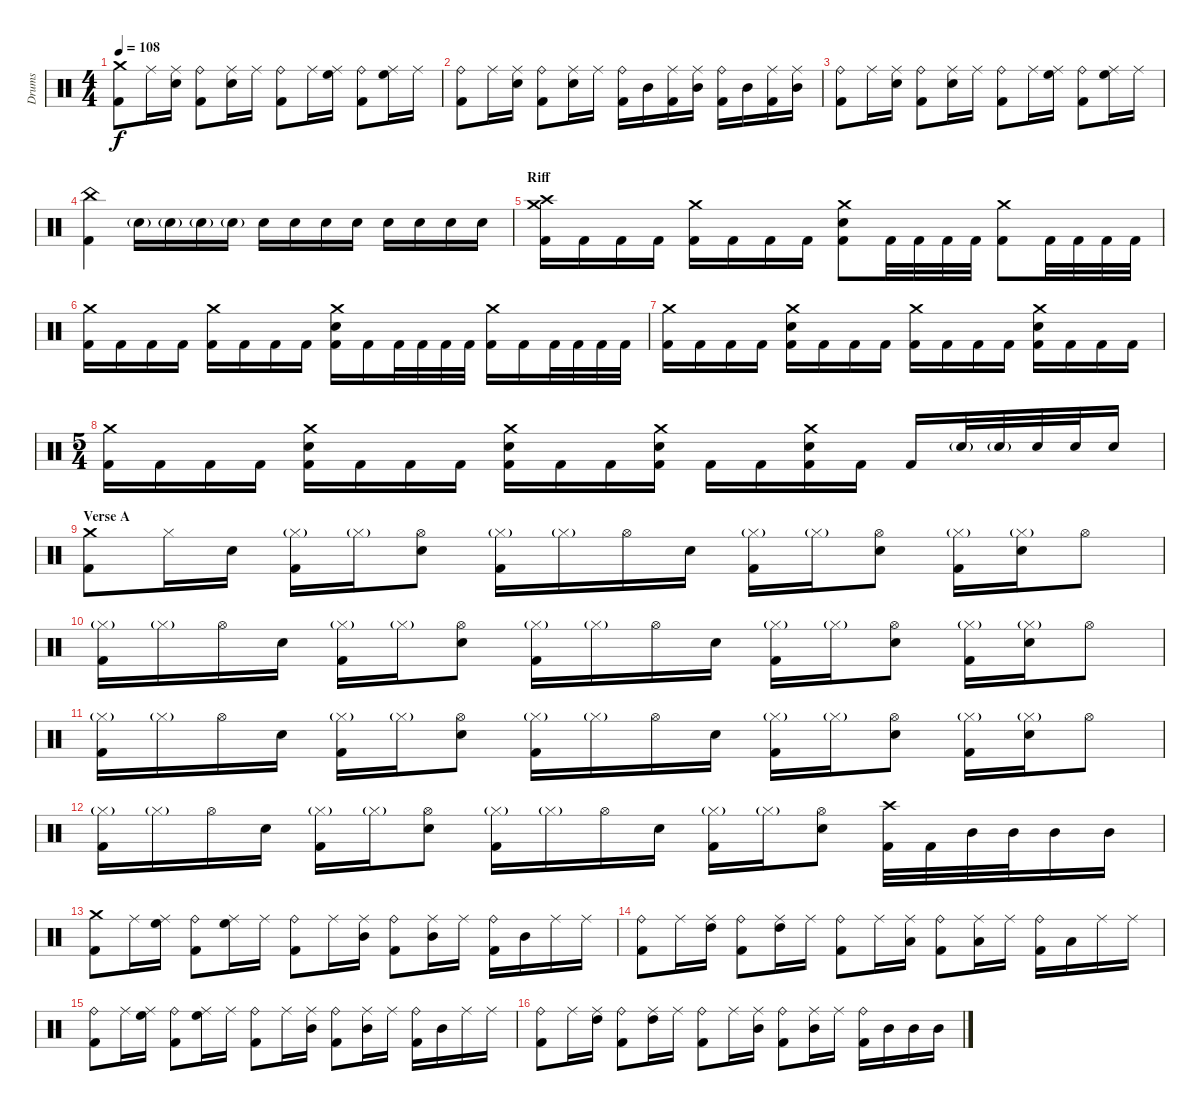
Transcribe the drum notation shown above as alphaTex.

\track ("Drums" "Drums") {instrument percussion}
\staff {score}
\articulation defaults
\ts (4 4)
\tempo 108
\clef neutral
\ks c
("Crash medium (hit)" "Kick (hit) 2").8{dy f} "Ride (middle)".16 ("Ride (middle)" "Snare (hit) 2").16 ("Ride (bell)" "Kick (hit) 2").8 ("Ride (middle)" "Snare (hit) 2").16 "Ride (middle)".16 ("Ride (bell)" "Kick (hit) 2").8 "Ride (middle)".16 ("Ride (middle)" "High Floor Tom (hit)").16 ("Ride (bell)" "Kick (hit) 2").8 ("Ride (middle)" "High Floor Tom (hit)").16 "Ride (middle)".16 |
("Ride (bell)" "Kick (hit) 2").8 "Ride (middle)".16 ("Ride (middle)" "Snare (hit) 2").16 ("Ride (bell)" "Kick (hit) 2").8 ("Ride (middle)" "Snare (hit) 2").16 "Ride (middle)".16 ("Ride (bell)" "Kick (hit) 2").16 "Mid Tom (hit)".16 ("Ride (middle)" "Kick (hit) 2").16 ("Ride (middle)" "Mid Tom (hit)").16 ("Ride (bell)" "Kick (hit) 2").16 "Mid Tom (hit)".16 ("Ride (middle)" "Kick (hit) 2").16 ("Ride (middle)" "Mid Tom (hit)").16 |
("Ride (bell)" "Kick (hit) 2").8 "Ride (middle)".16 ("Ride (middle)" "Snare (hit) 2").16 ("Ride (bell)" "Kick (hit) 2").8 ("Ride (middle)" "Snare (hit) 2").16 "Ride (middle)".16 ("Ride (bell)" "Kick (hit) 2").8 "Ride (middle)".16 ("Ride (middle)" "High Floor Tom (hit)").16 ("Ride (bell)" "Kick (hit) 2").8 ("Ride (middle)" "High Floor Tom (hit)").16 "Ride (middle)".16 |
("China (hit)" "Kick (hit) 2").4 "Snare (hit) 2"{g}.16 "Snare (hit) 2"{g}.16 "Snare (hit) 2"{g}.16 "Snare (hit) 2"{g}.16 "Snare (hit) 2".16 "Snare (hit) 2".16 "Snare (hit) 2".16 "Snare (hit) 2".16 "Snare (hit) 2".16 "Snare (hit) 2".16 "Snare (hit) 2".16 "Snare (hit) 2".16 |
\section ("" "Riff")
("Crash medium (hit)" "Crash high (hit)" "Kick (hit) 2").16 "Kick (hit) 2".16 "Kick (hit) 2".16 "Kick (hit) 2".16 ("Crash medium (hit)" "Kick (hit) 2").16 "Kick (hit) 2".16 "Kick (hit) 2".16 "Kick (hit) 2".16 ("Crash medium (hit)" "Snare (hit) 2" "Kick (hit) 2").8 "Kick (hit) 2".32 "Kick (hit) 2".32 "Kick (hit) 2".32 "Kick (hit) 2".32 ("Crash medium (hit)" "Kick (hit) 2").8 "Kick (hit) 2".32 "Kick (hit) 2".32 "Kick (hit) 2".32 "Kick (hit) 2".32 |
("Crash medium (hit)" "Kick (hit) 2").16 "Kick (hit) 2".16 "Kick (hit) 2".16 "Kick (hit) 2".16 ("Crash medium (hit)" "Kick (hit) 2").16 "Kick (hit) 2".16 "Kick (hit) 2".16 "Kick (hit) 2".16 ("Crash medium (hit)" "Snare (hit) 2" "Kick (hit) 2").16 "Kick (hit) 2".16 "Kick (hit) 2".32 "Kick (hit) 2".32 "Kick (hit) 2".32 "Kick (hit) 2".32 ("Crash medium (hit)" "Kick (hit) 2").16 "Kick (hit) 2".16 "Kick (hit) 2".32 "Kick (hit) 2".32 "Kick (hit) 2".32 "Kick (hit) 2".32 |
("Crash medium (hit)" "Kick (hit) 2").16 "Kick (hit) 2".16 "Kick (hit) 2".16 "Kick (hit) 2".16 ("Crash medium (hit)" "Snare (hit) 2" "Kick (hit) 2").16 "Kick (hit) 2".16 "Kick (hit) 2".16 "Kick (hit) 2".16 ("Crash medium (hit)" "Kick (hit) 2").16 "Kick (hit) 2".16 "Kick (hit) 2".16 "Kick (hit) 2".16 ("Crash medium (hit)" "Snare (hit) 2" "Kick (hit) 2").16 "Kick (hit) 2".16 "Kick (hit) 2".16 "Kick (hit) 2".16 |
\ts (5 4)
("Crash medium (hit)" "Kick (hit) 2").16 "Kick (hit) 2".16 "Kick (hit) 2".16 "Kick (hit) 2".16 ("Crash medium (hit)" "Snare (hit) 2" "Kick (hit) 2").16 "Kick (hit) 2".16 "Kick (hit) 2".16 "Kick (hit) 2".16 ("Crash medium (hit)" "Snare (hit) 2" "Kick (hit) 2").16 "Kick (hit) 2".16 "Kick (hit) 2".16 ("Crash medium (hit)" "Snare (hit) 2" "Kick (hit) 2").16 "Kick (hit) 2".16 "Kick (hit) 2".16 ("Crash medium (hit)" "Snare (hit) 2" "Kick (hit) 2").16 "Kick (hit) 2".16 "Kick (hit) 2".16 "Snare (hit) 2"{g}.32 "Snare (hit) 2"{g}.32 "Snare (hit) 2".32 "Snare (hit) 2".32 "Snare (hit) 2".16 |
\section ("" "Verse A")
("Crash medium (hit)" "Kick (hit) 2").8 "Hi-Hat (closed)".16 "Snare (hit) 2".16 ("Hi-Hat (closed)"{g} "Kick (hit) 2").16 "Hi-Hat (closed)"{g}.16 ("Hi-Hat (open)" "Snare (hit) 2").8 ("Hi-Hat (closed)"{g} "Kick (hit) 2").16 "Hi-Hat (closed)"{g}.16 "Hi-Hat (open)".16 "Snare (hit) 2".16 ("Hi-Hat (closed)"{g} "Kick (hit) 2").16 "Hi-Hat (closed)"{g}.16 ("Hi-Hat (open)" "Snare (hit) 2").8 ("Hi-Hat (closed)"{g} "Kick (hit) 2").16 ("Hi-Hat (closed)"{g} "Snare (hit) 2").16 "Hi-Hat (open)".8 |
("Hi-Hat (closed)"{g} "Kick (hit) 2").16 "Hi-Hat (closed)"{g}.16 "Hi-Hat (open)".16 "Snare (hit) 2".16 ("Hi-Hat (closed)"{g} "Kick (hit) 2").16 "Hi-Hat (closed)"{g}.16 ("Hi-Hat (open)" "Snare (hit) 2").8 ("Hi-Hat (closed)"{g} "Kick (hit) 2").16 "Hi-Hat (closed)"{g}.16 "Hi-Hat (open)".16 "Snare (hit) 2".16 ("Hi-Hat (closed)"{g} "Kick (hit) 2").16 "Hi-Hat (closed)"{g}.16 ("Hi-Hat (open)" "Snare (hit) 2").8 ("Hi-Hat (closed)"{g} "Kick (hit) 2").16 ("Hi-Hat (closed)"{g} "Snare (hit) 2").16 "Hi-Hat (open)".8 |
("Hi-Hat (closed)"{g} "Kick (hit) 2").16 "Hi-Hat (closed)"{g}.16 "Hi-Hat (open)".16 "Snare (hit) 2".16 ("Hi-Hat (closed)"{g} "Kick (hit) 2").16 "Hi-Hat (closed)"{g}.16 ("Hi-Hat (open)" "Snare (hit) 2").8 ("Hi-Hat (closed)"{g} "Kick (hit) 2").16 "Hi-Hat (closed)"{g}.16 "Hi-Hat (open)".16 "Snare (hit) 2".16 ("Hi-Hat (closed)"{g} "Kick (hit) 2").16 "Hi-Hat (closed)"{g}.16 ("Hi-Hat (open)" "Snare (hit) 2").8 ("Hi-Hat (closed)"{g} "Kick (hit) 2").16 ("Hi-Hat (closed)"{g} "Snare (hit) 2").16 "Hi-Hat (open)".8 |
("Hi-Hat (closed)"{g} "Kick (hit) 2").16 "Hi-Hat (closed)"{g}.16 "Hi-Hat (open)".16 "Snare (hit) 2".16 ("Hi-Hat (closed)"{g} "Kick (hit) 2").16 "Hi-Hat (closed)"{g}.16 ("Hi-Hat (open)" "Snare (hit) 2").8 ("Hi-Hat (closed)"{g} "Kick (hit) 2").16 "Hi-Hat (closed)"{g}.16 "Hi-Hat (open)".16 "Snare (hit) 2".16 ("Hi-Hat (closed)"{g} "Kick (hit) 2").16 "Hi-Hat (closed)"{g}.16 ("Hi-Hat (open)" "Snare (hit) 2").8 ("Crash high (hit)" "Kick (hit) 2").32 "Kick (hit) 2".32 "Mid Tom (hit)".32 "Mid Tom (hit)".32 "Mid Tom (hit)".16 "Mid Tom (hit)".16 |
("Crash medium (hit)" "Kick (hit) 2").8 "Ride (middle)".16 ("Ride (middle)" "High Floor Tom (hit)").16 ("Ride (bell)" "Kick (hit) 2").8 ("Ride (middle)" "High Floor Tom (hit)").16 "Ride (middle)".16 ("Ride (bell)" "Kick (hit) 2").8 "Ride (middle)".16 ("Ride (middle)" "Mid Tom (hit)").16 ("Ride (bell)" "Kick (hit) 2").8 ("Ride (middle)" "Mid Tom (hit)").16 "Ride (middle)".16 ("Ride (bell)" "Kick (hit) 2").16 "Mid Tom (hit)".16 "Ride (middle)".16 "Ride (middle)".16 |
("Ride (bell)" "Kick (hit) 2").8 "Ride (middle)".16 ("Ride (middle)" "High Tom (hit)").16 ("Ride (bell)" "Kick (hit) 2").8 ("Ride (middle)" "High Tom (hit)").16 "Ride (middle)".16 ("Ride (bell)" "Kick (hit) 2").8 "Ride (middle)".16 ("Ride (middle)" "Low Tom (hit)").16 ("Ride (bell)" "Kick (hit) 2").8 ("Ride (middle)" "Low Tom (hit)").16 "Ride (middle)".16 ("Ride (bell)" "Kick (hit) 2").16 "Low Tom (hit)".16 "Ride (middle)".16 "Ride (middle)".16 |
("Ride (bell)" "Kick (hit) 2").8 "Ride (middle)".16 ("Ride (middle)" "High Floor Tom (hit)").16 ("Ride (bell)" "Kick (hit) 2").8 ("Ride (middle)" "High Floor Tom (hit)").16 "Ride (middle)".16 ("Ride (bell)" "Kick (hit) 2").8 "Ride (middle)".16 ("Ride (middle)" "Mid Tom (hit)").16 ("Ride (bell)" "Kick (hit) 2").8 ("Ride (middle)" "Mid Tom (hit)").16 "Ride (middle)".16 ("Ride (bell)" "Kick (hit) 2").16 "Mid Tom (hit)".16 "Ride (middle)".16 "Ride (middle)".16 |
("Ride (bell)" "Kick (hit) 2").8 "Ride (middle)".16 ("Ride (middle)" "High Tom (hit)").16 ("Ride (bell)" "Kick (hit) 2").8 ("Ride (middle)" "High Tom (hit)").16 "Ride (middle)".16 ("Ride (bell)" "Kick (hit) 2").8 "Ride (middle)".16 ("Ride (middle)" "Mid Tom (hit)").16 ("Ride (bell)" "Kick (hit) 2").8 ("Ride (middle)" "Mid Tom (hit)").16 "Ride (middle)".16 ("Ride (bell)" "Kick (hit) 2").16 "Mid Tom (hit)".16 "Mid Tom (hit)".16 "Mid Tom (hit)".16
